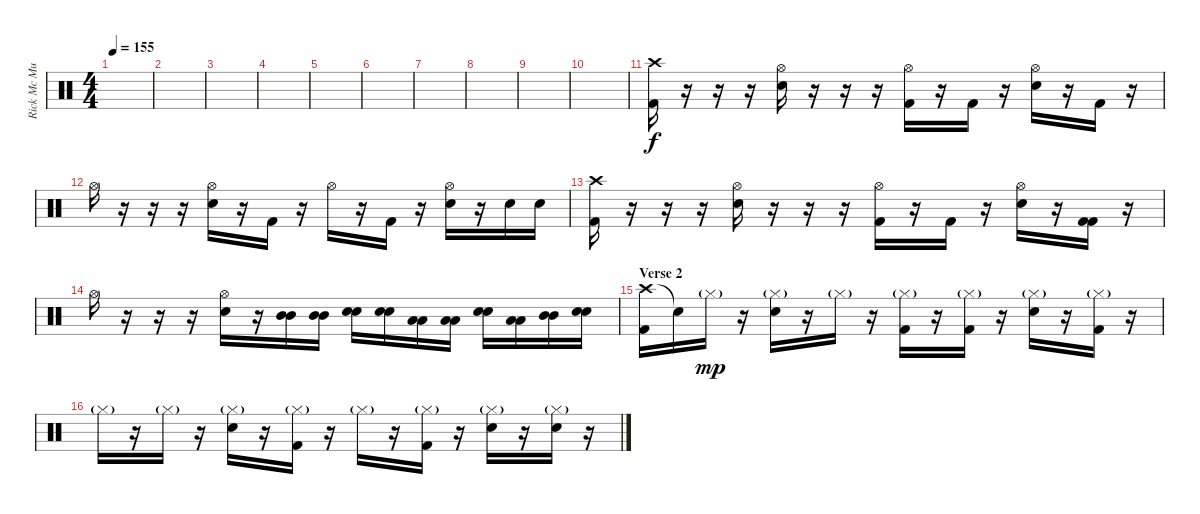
\track ("Rick Mc Murray" "Rick Mc Mu") {instrument percussion}
\staff {score}
\articulation defaults
\ts (4 4)
\tempo 155
\clef neutral
\ks c
|
|
|
|
|
|
|
|
|
|
("Crash high (hit)" "Kick (hit) 2").16 r.16 r.16 r.16 ("Hi-Hat (open)" "Electric Snare (hit)").16 r.16 r.16 r.16 ("Hi-Hat (open)" "Kick (hit) 2").16 r.16 "Kick (hit) 2".16 r.16 ("Hi-Hat (open)" "Electric Snare (hit)").16 r.16 "Kick (hit) 2".16 r.16 |
"Hi-Hat (open)".16 r.16 r.16 r.16 ("Hi-Hat (open)" "Electric Snare (hit)").16 r.16 "Kick (hit) 2".16 r.16 "Hi-Hat (open)".16 r.16 "Kick (hit) 2".16 r.16 ("Hi-Hat (open)" "Electric Snare (hit)").16 r.16 "Electric Snare (hit)".16 "Electric Snare (hit)".16 |
("Crash high (hit)" "Kick (hit) 2").16 r.16 r.16 r.16 ("Hi-Hat (open)" "Electric Snare (hit)").16 r.16 r.16 r.16 ("Hi-Hat (open)" "Kick (hit) 2").16 r.16 "Kick (hit) 2".16 r.16 ("Hi-Hat (open)" "Electric Snare (hit)").16 r.16 ("Kick (hit) 2" "Kick (hit) 2").16 r.16 |
"Hi-Hat (open)".16 r.16 r.16 r.16 ("Hi-Hat (open)" "Electric Snare (hit)").16 r.16 ("Mid Tom (hit)" "Mid Tom (hit)").16 ("Mid Tom (hit)" "Mid Tom (hit)").16 ("Snare (hit) 2" "Electric Snare (hit)").16 ("Snare (hit) 2" "Electric Snare (hit)").16 ("Low Tom (hit)" "Low Tom (hit)").16 ("Low Tom (hit)" "Low Tom (hit)").16 ("Snare (hit) 2" "Electric Snare (hit)").16 ("Low Tom (hit)" "Low Tom (hit)").16 ("Mid Tom (hit)" "Mid Tom (hit)").16 ("Snare (hit) 2" "Electric Snare (hit)").16 |
\section ("" "Verse 2")
("Crash high (hit)" "Kick (hit) 2").16 "Snare (hit)"{t}.16 "Hi-Hat (closed)"{g}.16{dy mp} r.16 ("Hi-Hat (closed)"{g} "Electric Snare (hit)").16 r.16 "Hi-Hat (closed)"{g}.16 r.16 ("Hi-Hat (closed)"{g} "Kick (hit) 2").16 r.16 ("Hi-Hat (closed)"{g} "Kick (hit) 2").16 r.16 ("Hi-Hat (closed)"{g} "Electric Snare (hit)").16 r.16 ("Hi-Hat (closed)"{g} "Kick (hit) 2").16 r.16 |
"Hi-Hat (closed)"{g}.16 r.16 "Hi-Hat (closed)"{g}.16 r.16 ("Hi-Hat (closed)"{g} "Electric Snare (hit)").16 r.16 ("Hi-Hat (closed)"{g} "Kick (hit) 2").16 r.16 "Hi-Hat (closed)"{g}.16 r.16 ("Hi-Hat (closed)"{g} "Kick (hit) 2").16 r.16 ("Hi-Hat (closed)"{g} "Electric Snare (hit)").16 r.16 ("Hi-Hat (closed)"{g} "Electric Snare (hit)").16 r.16
